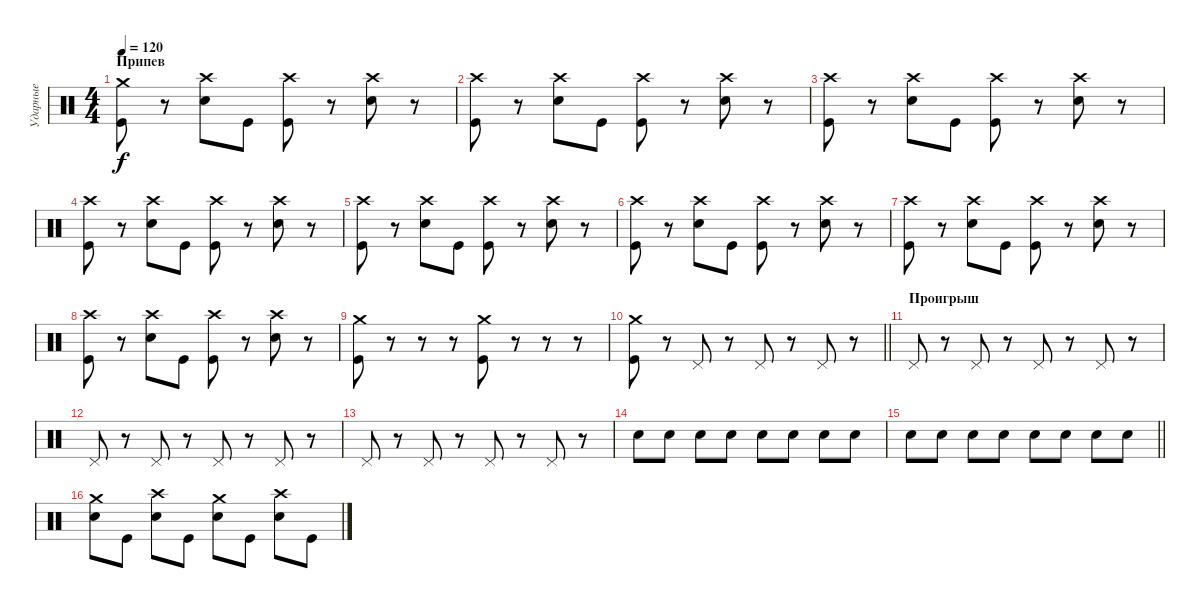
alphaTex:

\track ("Ударные" "Ударные") {instrument percussion}
\staff {score}
\articulation defaults
\ts (4 4)
\section ("" "Припев")
\tempo 120
\clef neutral
\ks c
("Crash medium (hit)" "Kick (hit)").8{dy f} r.8 ("Crash high (hit)" "Electric Snare (hit)").8 "Kick (hit)".8 ("Crash high (hit)" "Kick (hit)").8 r.8 ("Crash high (hit)" "Electric Snare (hit)").8 r.8 |
("Crash high (hit)" "Kick (hit)").8 r.8 ("Crash high (hit)" "Electric Snare (hit)").8 "Kick (hit)".8 ("Crash high (hit)" "Kick (hit)").8 r.8 ("Crash high (hit)" "Electric Snare (hit)").8 r.8 |
("Crash high (hit)" "Kick (hit)").8 r.8 ("Crash high (hit)" "Electric Snare (hit)").8 "Kick (hit)".8 ("Crash high (hit)" "Kick (hit)").8 r.8 ("Crash high (hit)" "Electric Snare (hit)").8 r.8 |
("Crash high (hit)" "Kick (hit)").8 r.8 ("Crash high (hit)" "Electric Snare (hit)").8 "Kick (hit)".8 ("Crash high (hit)" "Kick (hit)").8 r.8 ("Crash high (hit)" "Electric Snare (hit)").8 r.8 |
("Crash high (hit)" "Kick (hit)").8 r.8 ("Crash high (hit)" "Electric Snare (hit)").8 "Kick (hit)".8 ("Crash high (hit)" "Kick (hit)").8 r.8 ("Crash high (hit)" "Electric Snare (hit)").8 r.8 |
("Crash high (hit)" "Kick (hit)").8 r.8 ("Crash high (hit)" "Electric Snare (hit)").8 "Kick (hit)".8 ("Crash high (hit)" "Kick (hit)").8 r.8 ("Crash high (hit)" "Electric Snare (hit)").8 r.8 |
("Crash high (hit)" "Kick (hit)").8 r.8 ("Crash high (hit)" "Electric Snare (hit)").8 "Kick (hit)".8 ("Crash high (hit)" "Kick (hit)").8 r.8 ("Crash high (hit)" "Electric Snare (hit)").8 r.8 |
("Crash high (hit)" "Kick (hit)").8 r.8 ("Crash high (hit)" "Electric Snare (hit)").8 "Kick (hit)".8 ("Crash high (hit)" "Kick (hit)").8 r.8 ("Crash high (hit)" "Electric Snare (hit)").8 r.8 |
("Crash medium (hit)" "Kick (hit)").8 r.8 r.8 r.8 ("Crash medium (hit)" "Kick (hit)").8 r.8 r.8 r.8 |
\barLineRight lightlight
("Crash medium (hit)" "Kick (hit)").8 r.8 "Pedal Hi-Hat (hit)".8 r.8 "Pedal Hi-Hat (hit)".8 r.8 "Pedal Hi-Hat (hit)".8 r.8 |
\section ("" "Проигрыш")
"Pedal Hi-Hat (hit)".8 r.8 "Pedal Hi-Hat (hit)".8 r.8 "Pedal Hi-Hat (hit)".8 r.8 "Pedal Hi-Hat (hit)".8 r.8 |
"Pedal Hi-Hat (hit)".8 r.8 "Pedal Hi-Hat (hit)".8 r.8 "Pedal Hi-Hat (hit)".8 r.8 "Pedal Hi-Hat (hit)".8 r.8 |
"Pedal Hi-Hat (hit)".8 r.8 "Pedal Hi-Hat (hit)".8 r.8 "Pedal Hi-Hat (hit)".8 r.8 "Pedal Hi-Hat (hit)".8 r.8 |
"Electric Snare (hit)".8 "Electric Snare (hit)".8 "Electric Snare (hit)".8 "Electric Snare (hit)".8 "Electric Snare (hit)".8 "Electric Snare (hit)".8 "Electric Snare (hit)".8 "Electric Snare (hit)".8 |
\barLineRight lightlight "Electric Snare (hit)".8 "Electric Snare (hit)".8 "Electric Snare (hit)".8 "Electric Snare (hit)".8 "Electric Snare (hit)".8 "Electric Snare (hit)".8 "Electric Snare (hit)".8 "Electric Snare (hit)".8
|
\section ("" " ")
("Crash medium (hit)" "Electric Snare (hit)").8 "Kick (hit)".8 ("Crash high (hit)" "Electric Snare (hit)").8 "Kick (hit)".8 ("Crash medium (hit)" "Electric Snare (hit)").8 "Kick (hit)".8 ("Crash high (hit)" "Electric Snare (hit)").8 "Kick (hit)".8
